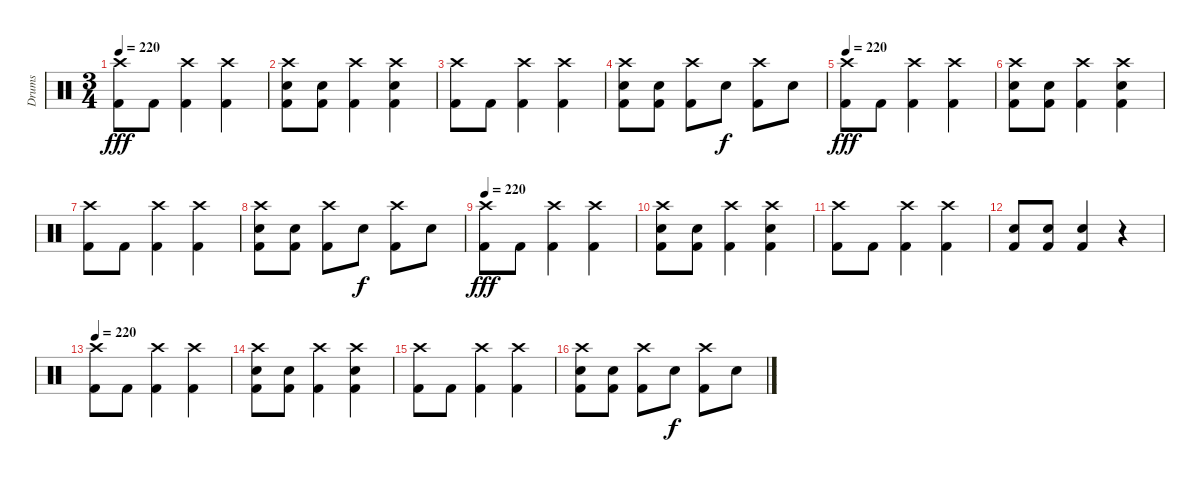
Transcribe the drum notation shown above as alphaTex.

\track ("Drums" "Drums") {instrument percussion}
\staff {score}
\articulation defaults
\ts (3 4)
\tempo 220
\clef neutral
\ks c
("Crash high (hit)" "Kick (hit) 2").8{dy fff} "Kick (hit) 2".8 ("Crash high (hit)" "Kick (hit) 2").4 ("Crash high (hit)" "Kick (hit) 2").4 |
("Crash high (hit)" "Electric Snare (hit)" "Kick (hit) 2").8 ("Electric Snare (hit)" "Kick (hit) 2").8 ("Crash high (hit)" "Kick (hit) 2").4 ("Crash high (hit)" "Electric Snare (hit)" "Kick (hit) 2").4 |
("Crash high (hit)" "Kick (hit) 2").8 "Kick (hit) 2".8 ("Crash high (hit)" "Kick (hit) 2").4 ("Crash high (hit)" "Kick (hit) 2").4 |
("Crash high (hit)" "Electric Snare (hit)" "Kick (hit) 2").8 ("Electric Snare (hit)" "Kick (hit) 2").8 ("Crash high (hit)" "Kick (hit) 2").8 "Electric Snare (hit)".8{dy f} ("Crash high (hit)" "Kick (hit) 2").8 "Electric Snare (hit)".8 |
\tempo 220
("Crash high (hit)" "Kick (hit) 2").8{dy fff} "Kick (hit) 2".8 ("Crash high (hit)" "Kick (hit) 2").4 ("Crash high (hit)" "Kick (hit) 2").4 |
("Crash high (hit)" "Electric Snare (hit)" "Kick (hit) 2").8 ("Electric Snare (hit)" "Kick (hit) 2").8 ("Crash high (hit)" "Kick (hit) 2").4 ("Crash high (hit)" "Electric Snare (hit)" "Kick (hit) 2").4 |
("Crash high (hit)" "Kick (hit) 2").8 "Kick (hit) 2".8 ("Crash high (hit)" "Kick (hit) 2").4 ("Crash high (hit)" "Kick (hit) 2").4 |
("Crash high (hit)" "Electric Snare (hit)" "Kick (hit) 2").8 ("Electric Snare (hit)" "Kick (hit) 2").8 ("Crash high (hit)" "Kick (hit) 2").8 "Electric Snare (hit)".8{dy f} ("Crash high (hit)" "Kick (hit) 2").8 "Electric Snare (hit)".8 |
\tempo 220
("Crash high (hit)" "Kick (hit) 2").8{dy fff} "Kick (hit) 2".8 ("Crash high (hit)" "Kick (hit) 2").4 ("Crash high (hit)" "Kick (hit) 2").4 |
("Crash high (hit)" "Electric Snare (hit)" "Kick (hit) 2").8 ("Electric Snare (hit)" "Kick (hit) 2").8 ("Crash high (hit)" "Kick (hit) 2").4 ("Crash high (hit)" "Electric Snare (hit)" "Kick (hit) 2").4 |
("Crash high (hit)" "Kick (hit) 2").8 "Kick (hit) 2".8 ("Crash high (hit)" "Kick (hit) 2").4 ("Crash high (hit)" "Kick (hit) 2").4 |
("Electric Snare (hit)" "Kick (hit) 2").8 ("Electric Snare (hit)" "Kick (hit) 2").8 ("Electric Snare (hit)" "Kick (hit) 2").4 r.4 |
\tempo 220
("Crash high (hit)" "Kick (hit) 2").8 "Kick (hit) 2".8 ("Crash high (hit)" "Kick (hit) 2").4 ("Crash high (hit)" "Kick (hit) 2").4 |
("Crash high (hit)" "Electric Snare (hit)" "Kick (hit) 2").8 ("Electric Snare (hit)" "Kick (hit) 2").8 ("Crash high (hit)" "Kick (hit) 2").4 ("Crash high (hit)" "Electric Snare (hit)" "Kick (hit) 2").4 |
("Crash high (hit)" "Kick (hit) 2").8 "Kick (hit) 2".8 ("Crash high (hit)" "Kick (hit) 2").4 ("Crash high (hit)" "Kick (hit) 2").4 |
("Crash high (hit)" "Electric Snare (hit)" "Kick (hit) 2").8 ("Electric Snare (hit)" "Kick (hit) 2").8 ("Crash high (hit)" "Kick (hit) 2").8 "Electric Snare (hit)".8{dy f} ("Crash high (hit)" "Kick (hit) 2").8 "Electric Snare (hit)".8
